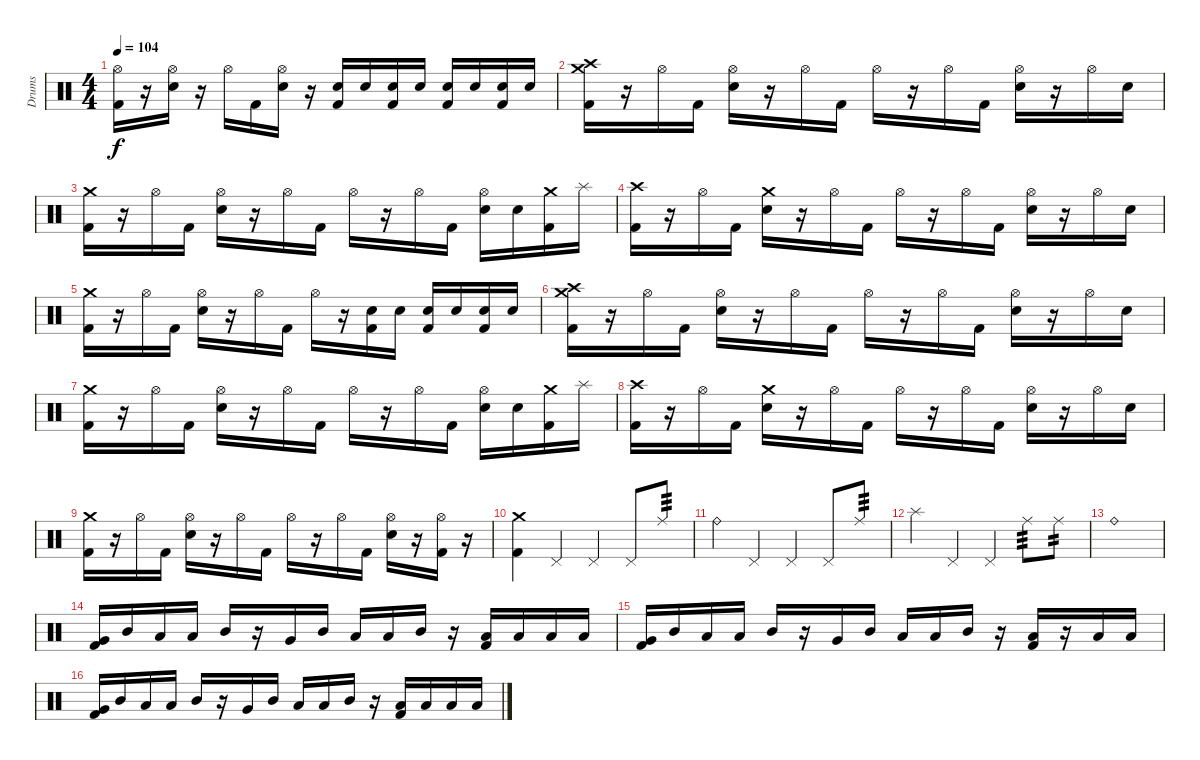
\track ("Drums" "Drums") {instrument percussion}
\staff {score}
\articulation defaults
\ts (4 4)
\tempo 104
\clef neutral
\ks c
("Hi-Hat (open)" "Kick (hit) 2").16{dy f} r.16 ("Hi-Hat (open)" "Snare (hit) 2").16 r.16 "Hi-Hat (open)".16 "Kick (hit) 2".16 ("Hi-Hat (open)" "Snare (hit) 2").16 r.16 ("Snare (hit) 2" "Kick (hit) 2").16 "Snare (hit) 2".16 ("Snare (hit) 2" "Kick (hit) 2").16 "Snare (hit) 2".16 ("Snare (hit) 2" "Kick (hit) 2").16 "Snare (hit) 2".16 ("Snare (hit) 2" "Kick (hit) 2").16 "Snare (hit) 2".16 |
("Crash high (hit)" "Crash medium (hit)" "Kick (hit) 2").16 r.16 "Hi-Hat (open)".16 "Kick (hit) 2".16 ("Hi-Hat (open)" "Snare (hit) 2").16 r.16 "Hi-Hat (open)".16 "Kick (hit) 2".16 "Hi-Hat (open)".16 r.16 "Hi-Hat (open)".16 "Kick (hit) 2".16 ("Hi-Hat (open)" "Snare (hit) 2").16 r.16 "Hi-Hat (open)".16 "Snare (hit) 2".16 |
("Crash medium (hit)" "Kick (hit) 2").16 r.16 "Hi-Hat (open)".16 "Kick (hit) 2".16 ("Hi-Hat (open)" "Snare (hit) 2").16 r.16 "Hi-Hat (open)".16 "Kick (hit) 2".16 "Hi-Hat (open)".16 r.16 "Hi-Hat (open)".16 "Kick (hit) 2".16 ("Hi-Hat (open)" "Snare (hit) 2").16 "Snare (hit) 2".16 ("Crash medium (hit)" "Kick (hit) 2").16 "Splash (hit)".16 |
("Crash high (hit)" "Kick (hit) 2").16 r.16 "Hi-Hat (open)".16 "Kick (hit) 2".16 ("Crash medium (hit)" "Snare (hit) 2").16 r.16 "Hi-Hat (open)".16 "Kick (hit) 2".16 "Hi-Hat (open)".16 r.16 "Hi-Hat (open)".16 "Kick (hit) 2".16 ("Hi-Hat (open)" "Snare (hit) 2").16 r.16 "Hi-Hat (open)".16 "Snare (hit) 2".16 |
("Crash medium (hit)" "Kick (hit) 2").16 r.16 "Hi-Hat (open)".16 "Kick (hit) 2".16 ("Hi-Hat (open)" "Snare (hit) 2").16 r.16 "Hi-Hat (open)".16 "Kick (hit) 2".16 "Hi-Hat (open)".16 r.16 ("Snare (hit) 2" "Kick (hit) 2").16 "Snare (hit) 2".16 ("Snare (hit) 2" "Kick (hit) 2").16 "Snare (hit) 2".16 ("Snare (hit) 2" "Kick (hit) 2").16 "Snare (hit) 2".16 |
("Crash high (hit)" "Crash medium (hit)" "Kick (hit) 2").16 r.16 "Hi-Hat (open)".16 "Kick (hit) 2".16 ("Hi-Hat (open)" "Snare (hit) 2").16 r.16 "Hi-Hat (open)".16 "Kick (hit) 2".16 "Hi-Hat (open)".16 r.16 "Hi-Hat (open)".16 "Kick (hit) 2".16 ("Hi-Hat (open)" "Snare (hit) 2").16 r.16 "Hi-Hat (open)".16 "Snare (hit) 2".16 |
("Crash medium (hit)" "Kick (hit) 2").16 r.16 "Hi-Hat (open)".16 "Kick (hit) 2".16 ("Hi-Hat (open)" "Snare (hit) 2").16 r.16 "Hi-Hat (open)".16 "Kick (hit) 2".16 "Hi-Hat (open)".16 r.16 "Hi-Hat (open)".16 "Kick (hit) 2".16 ("Hi-Hat (open)" "Snare (hit) 2").16 "Snare (hit) 2".16 ("Crash medium (hit)" "Kick (hit) 2").16 "Splash (hit)".16 |
("Crash high (hit)" "Kick (hit) 2").16 r.16 "Hi-Hat (open)".16 "Kick (hit) 2".16 ("Crash medium (hit)" "Snare (hit) 2").16 r.16 "Hi-Hat (open)".16 "Kick (hit) 2".16 "Hi-Hat (open)".16 r.16 "Hi-Hat (open)".16 "Kick (hit) 2".16 ("Hi-Hat (open)" "Snare (hit) 2").16 r.16 "Hi-Hat (open)".16 "Snare (hit) 2".16 |
("Crash medium (hit)" "Kick (hit) 2").16 r.16 "Hi-Hat (open)".16 "Kick (hit) 2".16 ("Hi-Hat (open)" "Snare (hit) 2").16 r.16 "Hi-Hat (open)".16 "Kick (hit) 2".16 "Hi-Hat (open)".16 r.16 "Hi-Hat (open)".16 "Kick (hit) 2".16 ("Hi-Hat (open)" "Snare (hit) 2").16 r.16 ("Hi-Hat (open)" "Kick (hit) 2").16 r.16 |
("Crash medium (hit)" "Kick (hit) 2").4 "Pedal Hi-Hat (hit)".4 "Pedal Hi-Hat (hit)".4 "Pedal Hi-Hat (hit)".8 "Ride (middle)".8{tp 3} |
"Ride (bell)".4 "Pedal Hi-Hat (hit)".4 "Pedal Hi-Hat (hit)".4 "Pedal Hi-Hat (hit)".8 "Ride (middle)".8{tp 3} |
"Splash (hit)".4 "Pedal Hi-Hat (hit)".4 "Pedal Hi-Hat (hit)".4 "Ride (middle)".8{tp 3} "Ride (middle)".8{tp 2} |
"Ride (bell)".1 |
("Very Low Tom (hit)" "Kick (hit) 2").16 "Mid Tom (hit)".16 "Low Tom (hit)".16 "Low Tom (hit)".16 "Mid Tom (hit)".16 r.16 "Very Low Tom (hit)".16 "Mid Tom (hit)".16 "Low Tom (hit)".16 "Low Tom (hit)".16 "Mid Tom (hit)".16 r.16 ("Low Tom (hit)" "Kick (hit) 2").16 "Low Tom (hit)".16 "Low Tom (hit)".16 "Low Tom (hit)".16 |
("Very Low Tom (hit)" "Kick (hit) 2").16 "Mid Tom (hit)".16 "Low Tom (hit)".16 "Low Tom (hit)".16 "Mid Tom (hit)".16 r.16 "Very Low Tom (hit)".16 "Mid Tom (hit)".16 "Low Tom (hit)".16 "Low Tom (hit)".16 "Mid Tom (hit)".16 r.16 ("Low Tom (hit)" "Kick (hit) 2").16 r.16 "Low Tom (hit)".16 "Low Tom (hit)".16 |
("Very Low Tom (hit)" "Kick (hit) 2").16 "Mid Tom (hit)".16 "Low Tom (hit)".16 "Low Tom (hit)".16 "Mid Tom (hit)".16 r.16 "Very Low Tom (hit)".16 "Mid Tom (hit)".16 "Low Tom (hit)".16 "Low Tom (hit)".16 "Mid Tom (hit)".16 r.16 ("Low Tom (hit)" "Kick (hit) 2").16 "Low Tom (hit)".16 "Low Tom (hit)".16 "Low Tom (hit)".16
